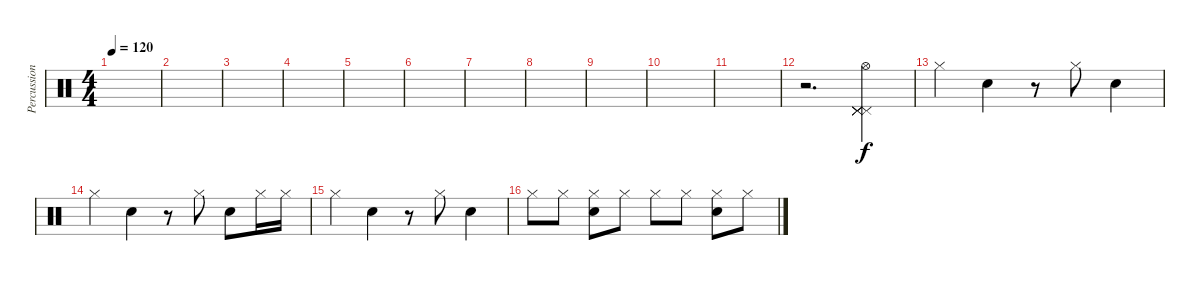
\track ("Percussions" "Percussion") {instrument percussion}
\staff {score}
\articulation defaults
\ts (4 4)
\tempo 120
\clef neutral
\ks c
|
|
|
|
|
|
|
|
|
|
|
r.2{d} ("Hi-Hat (open)" "Pedal Hi-Hat (hit)" "Pedal Hi-Hat (hit)" "Pedal Hi-Hat (hit)" "Pedal Hi-Hat (hit)").4{bd 480} |
"Hi-Hat (closed)".4 "Electric Snare (hit)".4 r.8 "Hi-Hat (closed)".8 "Electric Snare (hit)".4 |
"Hi-Hat (closed)".4 "Electric Snare (hit)".4 r.8 "Hi-Hat (closed)".8 "Electric Snare (hit)".8 "Hi-Hat (closed)".16 "Hi-Hat (closed)".16 |
"Hi-Hat (closed)".4 "Electric Snare (hit)".4 r.8 "Hi-Hat (closed)".8 "Electric Snare (hit)".4 |
"Hi-Hat (closed)".8 "Hi-Hat (closed)".8 ("Hi-Hat (closed)" "Electric Snare (hit)").8 "Hi-Hat (closed)".8 "Hi-Hat (closed)".8 "Hi-Hat (closed)".8 ("Hi-Hat (closed)" "Electric Snare (hit)").8 "Hi-Hat (closed)".8
